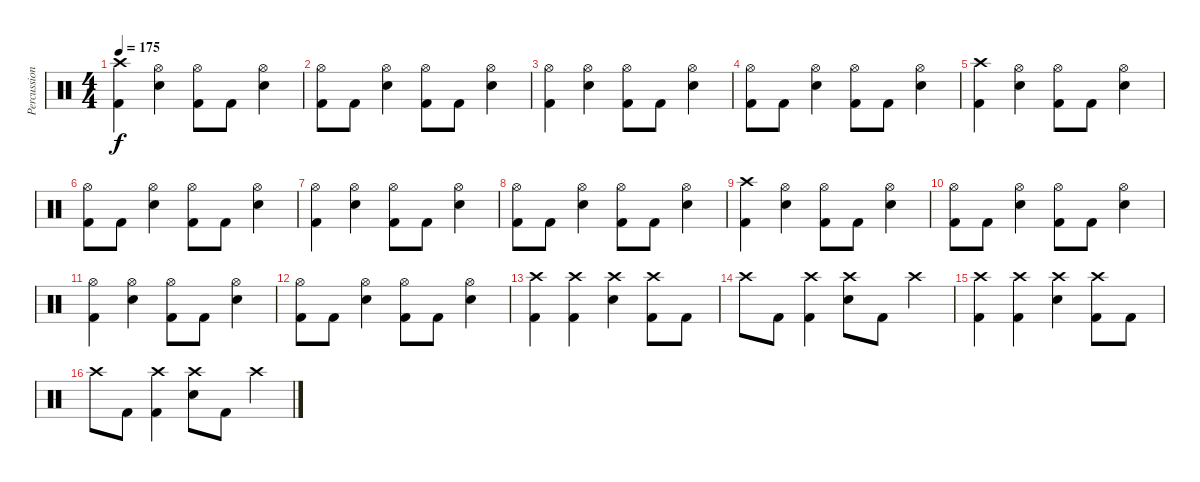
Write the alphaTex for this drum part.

\track ("Percussion" "Percussion") {instrument percussion}
\staff {score}
\articulation defaults
\ts (4 4)
\tempo 175
\clef neutral
\ks c
("Crash high (hit)" "Kick (hit) 2").4{dy f} ("Hi-Hat (open)" "Electric Snare (hit)").4 ("Hi-Hat (open)" "Kick (hit) 2").8 "Kick (hit) 2".8 ("Hi-Hat (open)" "Electric Snare (hit)").4 |
("Hi-Hat (open)" "Kick (hit) 2").8 "Kick (hit) 2".8 ("Hi-Hat (open)" "Electric Snare (hit)").4 ("Hi-Hat (open)" "Kick (hit) 2").8 "Kick (hit) 2".8 ("Hi-Hat (open)" "Electric Snare (hit)").4 |
("Hi-Hat (open)" "Kick (hit) 2").4 ("Hi-Hat (open)" "Electric Snare (hit)").4 ("Hi-Hat (open)" "Kick (hit) 2").8 "Kick (hit) 2".8 ("Hi-Hat (open)" "Electric Snare (hit)").4 |
("Hi-Hat (open)" "Kick (hit) 2").8 "Kick (hit) 2".8 ("Hi-Hat (open)" "Electric Snare (hit)").4 ("Hi-Hat (open)" "Kick (hit) 2").8 "Kick (hit) 2".8 ("Hi-Hat (open)" "Electric Snare (hit)").4 |
("Crash high (hit)" "Kick (hit) 2").4 ("Hi-Hat (open)" "Electric Snare (hit)").4 ("Hi-Hat (open)" "Kick (hit) 2").8 "Kick (hit) 2".8 ("Hi-Hat (open)" "Electric Snare (hit)").4 |
("Hi-Hat (open)" "Kick (hit) 2").8 "Kick (hit) 2".8 ("Hi-Hat (open)" "Electric Snare (hit)").4 ("Hi-Hat (open)" "Kick (hit) 2").8 "Kick (hit) 2".8 ("Hi-Hat (open)" "Electric Snare (hit)").4 |
("Hi-Hat (open)" "Kick (hit) 2").4 ("Hi-Hat (open)" "Electric Snare (hit)").4 ("Hi-Hat (open)" "Kick (hit) 2").8 "Kick (hit) 2".8 ("Hi-Hat (open)" "Electric Snare (hit)").4 |
("Hi-Hat (open)" "Kick (hit) 2").8 "Kick (hit) 2".8 ("Hi-Hat (open)" "Electric Snare (hit)").4 ("Hi-Hat (open)" "Kick (hit) 2").8 "Kick (hit) 2".8 ("Hi-Hat (open)" "Electric Snare (hit)").4 |
("Crash high (hit)" "Kick (hit) 2").4 ("Hi-Hat (open)" "Electric Snare (hit)").4 ("Hi-Hat (open)" "Kick (hit) 2").8 "Kick (hit) 2".8 ("Hi-Hat (open)" "Electric Snare (hit)").4 |
("Hi-Hat (open)" "Kick (hit) 2").8 "Kick (hit) 2".8 ("Hi-Hat (open)" "Electric Snare (hit)").4 ("Hi-Hat (open)" "Kick (hit) 2").8 "Kick (hit) 2".8 ("Hi-Hat (open)" "Electric Snare (hit)").4 |
("Hi-Hat (open)" "Kick (hit) 2").4 ("Hi-Hat (open)" "Electric Snare (hit)").4 ("Hi-Hat (open)" "Kick (hit) 2").8 "Kick (hit) 2".8 ("Hi-Hat (open)" "Electric Snare (hit)").4 |
("Hi-Hat (open)" "Kick (hit) 2").8 "Kick (hit) 2".8 ("Hi-Hat (open)" "Electric Snare (hit)").4 ("Hi-Hat (open)" "Kick (hit) 2").8 "Kick (hit) 2".8 ("Hi-Hat (open)" "Electric Snare (hit)").4 |
("Crash high (hit)" "Kick (hit) 2").4 ("Crash high (hit)" "Kick (hit) 2").4 ("Crash high (hit)" "Snare (hit) 2").4 ("Crash high (hit)" "Kick (hit) 2").8 "Kick (hit) 2".8 |
"Crash high (hit)".8 "Kick (hit) 2".8 ("Crash high (hit)" "Kick (hit) 2").4 ("Crash high (hit)" "Snare (hit) 2").8 "Kick (hit) 2".8 "Crash high (hit)".4 |
("Crash high (hit)" "Kick (hit) 2").4 ("Crash high (hit)" "Kick (hit) 2").4 ("Crash high (hit)" "Snare (hit) 2").4 ("Crash high (hit)" "Kick (hit) 2").8 "Kick (hit) 2".8 |
"Crash high (hit)".8 "Kick (hit) 2".8 ("Crash high (hit)" "Kick (hit) 2").4 ("Crash high (hit)" "Snare (hit) 2").8 "Kick (hit) 2".8 "Crash high (hit)".4
